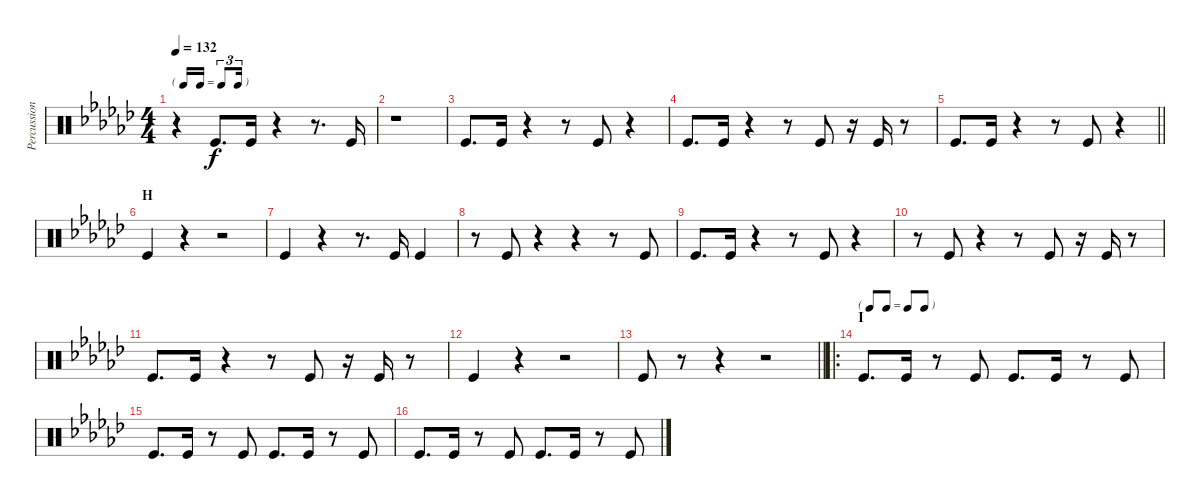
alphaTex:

\track ("Percussion foot" "Percussion") {instrument percussion}
\staff {score}
\articulation defaults
\ts (4 4)
\tf triplet16th
\tempo 132
\clef neutral
\ks gb
r.4{dy f} "Kick (hit)".8{d} "Kick (hit)".16 r.4 r.8{d} "Kick (hit)".16 |
r.1 |
"Kick (hit)".8{d} "Kick (hit)".16 r.4 r.8 "Kick (hit)".8 r.4 |
"Kick (hit)".8{d} "Kick (hit)".16 r.4 r.8 "Kick (hit)".8 r.16 "Kick (hit)".16 r.8 |
\barLineRight lightlight "Kick (hit)".8{d} "Kick (hit)".16
r.4 r.8 "Kick (hit)".8 r.4 |
\section ("" "H")
"Kick (hit)".4 r.4 r.2 |
"Kick (hit)".4 r.4 r.8{d} "Kick (hit)".16 "Kick (hit)".4 |
r.8 "Kick (hit)".8 r.4 r.4 r.8 "Kick (hit)".8 |
"Kick (hit)".8{d} "Kick (hit)".16 r.4 r.8 "Kick (hit)".8 r.4 |
r.8 "Kick (hit)".8 r.4 r.8 "Kick (hit)".8 r.16 "Kick (hit)".16 r.8 |
"Kick (hit)".8{d} "Kick (hit)".16 r.4 r.8 "Kick (hit)".8 r.16 "Kick (hit)".16 r.8 |
"Kick (hit)".4 r.4 r.2 |
\barLineRight lightlight "Kick (hit)".8
r.8 r.4 r.2 |
\ro
\tf none
\section ("" "I")
"Kick (hit)".8{d} "Kick (hit)".16 r.8 "Kick (hit)".8 "Kick (hit)".8{d} "Kick (hit)".16 r.8 "Kick (hit)".8 |
"Kick (hit)".8{d} "Kick (hit)".16 r.8 "Kick (hit)".8 "Kick (hit)".8{d} "Kick (hit)".16 r.8 "Kick (hit)".8 |
"Kick (hit)".8{d} "Kick (hit)".16 r.8 "Kick (hit)".8 "Kick (hit)".8{d} "Kick (hit)".16 r.8 "Kick (hit)".8
